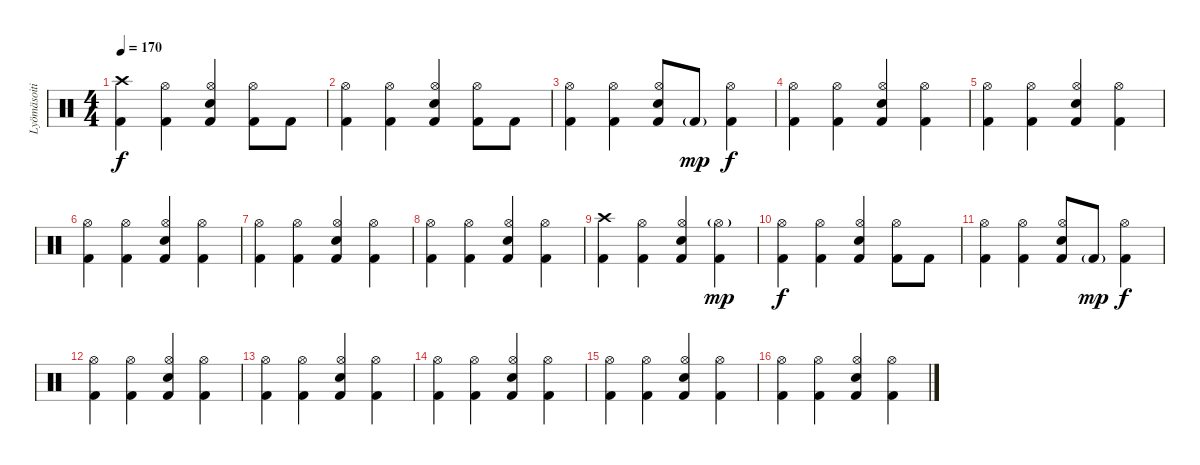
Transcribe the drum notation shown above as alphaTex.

\track ("Lyömäsoitin" "Lyömäsoiti") {instrument percussion}
\staff {score}
\articulation defaults
\ts (4 4)
\tempo 170
\clef neutral
\ks c
("Crash high (hit)" "Kick (hit) 2").4{dy f} ("Kick (hit) 2" "Hi-Hat (open)").4 ("Hi-Hat (open)" "Electric Snare (hit)" "Kick (hit) 2").4 ("Kick (hit) 2" "Hi-Hat (open)").8 "Kick (hit) 2".8 |
("Hi-Hat (open)" "Kick (hit) 2").4 ("Kick (hit) 2" "Hi-Hat (open)").4 ("Hi-Hat (open)" "Electric Snare (hit)" "Kick (hit) 2").4 ("Kick (hit) 2" "Hi-Hat (open)").8 "Kick (hit) 2".8 |
("Hi-Hat (open)" "Kick (hit) 2").4 ("Kick (hit) 2" "Hi-Hat (open)").4 ("Hi-Hat (open)" "Electric Snare (hit)" "Kick (hit) 2").8 "Kick (hit) 2"{g}.8{dy mp} ("Kick (hit) 2" "Hi-Hat (open)").4{dy f} |
("Hi-Hat (open)" "Kick (hit) 2").4 ("Kick (hit) 2" "Hi-Hat (open)").4 ("Hi-Hat (open)" "Electric Snare (hit)" "Kick (hit) 2").4 ("Kick (hit) 2" "Hi-Hat (open)").4 |
("Hi-Hat (open)" "Kick (hit) 2").4 ("Kick (hit) 2" "Hi-Hat (open)").4 ("Hi-Hat (open)" "Electric Snare (hit)" "Kick (hit) 2").4 ("Kick (hit) 2" "Hi-Hat (open)").4 |
("Hi-Hat (open)" "Kick (hit) 2").4 ("Kick (hit) 2" "Hi-Hat (open)").4 ("Hi-Hat (open)" "Electric Snare (hit)" "Kick (hit) 2").4 ("Kick (hit) 2" "Hi-Hat (open)").4 |
("Hi-Hat (open)" "Kick (hit) 2").4 ("Kick (hit) 2" "Hi-Hat (open)").4 ("Hi-Hat (open)" "Electric Snare (hit)" "Kick (hit) 2").4 ("Kick (hit) 2" "Hi-Hat (open)").4 |
("Hi-Hat (open)" "Kick (hit) 2").4 ("Kick (hit) 2" "Hi-Hat (open)").4 ("Hi-Hat (open)" "Electric Snare (hit)" "Kick (hit) 2").4 ("Kick (hit) 2" "Hi-Hat (open)").4 |
("Crash high (hit)" "Kick (hit) 2").4 ("Kick (hit) 2" "Hi-Hat (open)").4 ("Hi-Hat (open)" "Electric Snare (hit)" "Kick (hit) 2").4 ("Kick (hit) 2" "Hi-Hat (open)"{g}).4{dy mp} |
("Hi-Hat (open)" "Kick (hit) 2").4{dy f} ("Kick (hit) 2" "Hi-Hat (open)").4 ("Hi-Hat (open)" "Electric Snare (hit)" "Kick (hit) 2").4 ("Kick (hit) 2" "Hi-Hat (open)").8 "Kick (hit) 2".8 |
("Hi-Hat (open)" "Kick (hit) 2").4 ("Kick (hit) 2" "Hi-Hat (open)").4 ("Hi-Hat (open)" "Electric Snare (hit)" "Kick (hit) 2").8 "Kick (hit) 2"{g}.8{dy mp} ("Kick (hit) 2" "Hi-Hat (open)").4{dy f} |
("Hi-Hat (open)" "Kick (hit) 2").4 ("Kick (hit) 2" "Hi-Hat (open)").4 ("Hi-Hat (open)" "Electric Snare (hit)" "Kick (hit) 2").4 ("Kick (hit) 2" "Hi-Hat (open)").4 |
("Hi-Hat (open)" "Kick (hit) 2").4 ("Kick (hit) 2" "Hi-Hat (open)").4 ("Hi-Hat (open)" "Electric Snare (hit)" "Kick (hit) 2").4 ("Kick (hit) 2" "Hi-Hat (open)").4 |
("Hi-Hat (open)" "Kick (hit) 2").4 ("Kick (hit) 2" "Hi-Hat (open)").4 ("Hi-Hat (open)" "Electric Snare (hit)" "Kick (hit) 2").4 ("Kick (hit) 2" "Hi-Hat (open)").4 |
("Hi-Hat (open)" "Kick (hit) 2").4 ("Kick (hit) 2" "Hi-Hat (open)").4 ("Hi-Hat (open)" "Electric Snare (hit)" "Kick (hit) 2").4 ("Kick (hit) 2" "Hi-Hat (open)").4 |
("Hi-Hat (open)" "Kick (hit) 2").4 ("Kick (hit) 2" "Hi-Hat (open)").4 ("Hi-Hat (open)" "Electric Snare (hit)" "Kick (hit) 2").4 ("Kick (hit) 2" "Hi-Hat (open)").4
